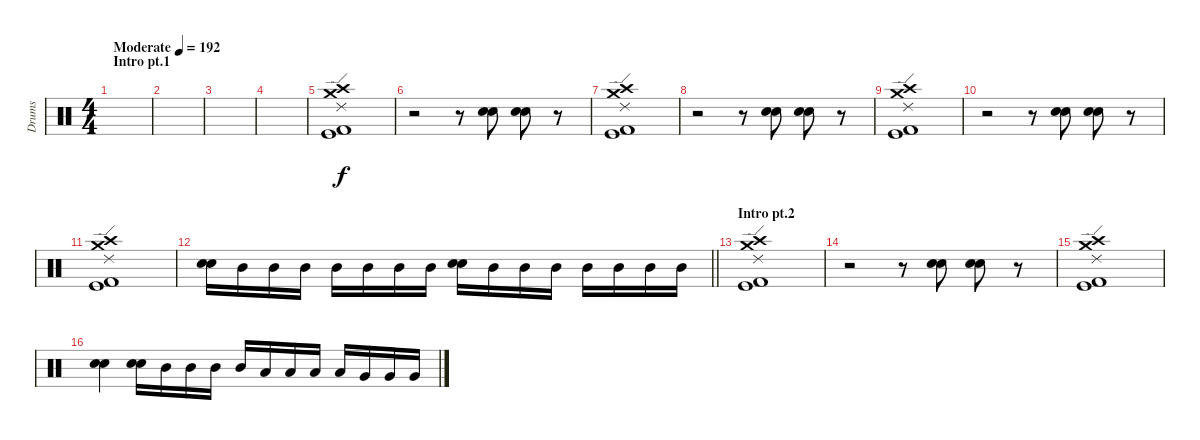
\track ("Drums" "Drums") {instrument percussion}
\staff {score}
\articulation defaults
\ts (4 4)
\section ("" "Intro pt.1")
\tempo (192 "Moderate")
\clef neutral
\ks c
|
|
|
|
("Crash medium (hit)" "Ride (edge) 2" "Crash high (hit)" "Kick (hit)" "Kick (hit) 2").1 |
r.2 r.8 ("Electric Snare (hit)" "Snare (hit) 2").8 ("Electric Snare (hit)" "Snare (hit) 2").8 r.8 |
("Crash medium (hit)" "Ride (edge) 2" "Crash high (hit)" "Kick (hit)" "Kick (hit) 2").1 |
r.2 r.8 ("Electric Snare (hit)" "Snare (hit) 2").8 ("Electric Snare (hit)" "Snare (hit) 2").8 r.8 |
("Crash medium (hit)" "Ride (edge) 2" "Crash high (hit)" "Kick (hit)" "Kick (hit) 2").1 |
r.2 r.8 ("Electric Snare (hit)" "Snare (hit) 2").8 ("Electric Snare (hit)" "Snare (hit) 2").8 r.8 |
("Crash medium (hit)" "Ride (edge) 2" "Crash high (hit)" "Kick (hit)" "Kick (hit) 2").1 |
\barLineRight lightlight
("Electric Snare (hit)" "Snare (hit) 2").16 "Mid Tom (hit)".16 "Mid Tom (hit)".16 "Mid Tom (hit)".16 "Mid Tom (hit)".16 "Mid Tom (hit)".16 "Mid Tom (hit)".16 "Mid Tom (hit)".16 ("Electric Snare (hit)" "Snare (hit) 2").16 "Mid Tom (hit)".16 "Mid Tom (hit)".16 "Mid Tom (hit)".16 "Mid Tom (hit)".16 "Mid Tom (hit)".16 "Mid Tom (hit)".16 "Mid Tom (hit)".16 |
\section ("" "Intro pt.2")
("Crash medium (hit)" "Ride (edge) 2" "Crash high (hit)" "Kick (hit)" "Kick (hit) 2").1 |
r.2 r.8 ("Electric Snare (hit)" "Snare (hit) 2").8 ("Electric Snare (hit)" "Snare (hit) 2").8 r.8 |
("Crash medium (hit)" "Ride (edge) 2" "Crash high (hit)" "Kick (hit)" "Kick (hit) 2").1 |
("Electric Snare (hit)" "Snare (hit) 2").4 ("Electric Snare (hit)" "Snare (hit) 2").16 "Mid Tom (hit)".16 "Mid Tom (hit)".16 "Mid Tom (hit)".16 "Mid Tom (hit)".16 "Low Tom (hit)".16 "Low Tom (hit)".16 "Low Tom (hit)".16 "Low Tom (hit)".16 "Very Low Tom (hit)".16 "Very Low Tom (hit)".16 "Very Low Tom (hit)".16
